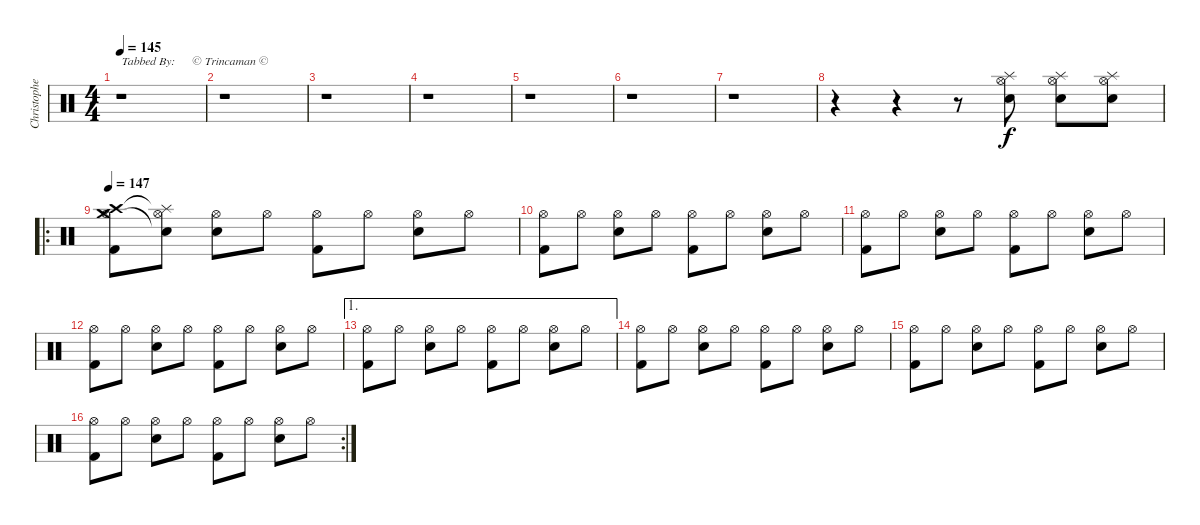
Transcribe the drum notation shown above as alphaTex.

\track ("Christopher Schneider  (Drums)" "Christophe") {instrument percussion}
\staff {score}
\articulation defaults
\ts (4 4)
\tempo 145
\clef neutral
\ks c
r.1{txt "Tabbed By:      © Trincaman ©" dy f} |
r.1 |
r.1 |
r.1 |
r.1 |
r.1 |
r.1 |
r.4 r.4 r.8 ("Hi-Hat (open)" "Splash (hit)" "Electric Snare (hit)").8 ("Hi-Hat (open)" "Splash (hit)" "Electric Snare (hit)").8 ("Hi-Hat (open)" "Splash (hit)" "Electric Snare (hit)").8 |
\ro
\tempo 147
("Crash high (hit)" "Hi-Hat (open)" "Crash medium (hit)" "Kick (hit) 2").8 ("Splash (hit)"{t} "Hi-Hat (open)" "Snare (hit)"{t}).8 ("Hi-Hat (open)" "Electric Snare (hit)").8 "Hi-Hat (open)".8 ("Hi-Hat (open)" "Kick (hit) 2").8 "Hi-Hat (open)".8 ("Hi-Hat (open)" "Electric Snare (hit)").8 "Hi-Hat (open)".8 |
("Hi-Hat (open)" "Kick (hit) 2").8 "Hi-Hat (open)".8 ("Hi-Hat (open)" "Electric Snare (hit)").8 "Hi-Hat (open)".8 ("Hi-Hat (open)" "Kick (hit) 2").8 "Hi-Hat (open)".8 ("Hi-Hat (open)" "Electric Snare (hit)").8 "Hi-Hat (open)".8 |
("Hi-Hat (open)" "Kick (hit) 2").8 "Hi-Hat (open)".8 ("Hi-Hat (open)" "Electric Snare (hit)").8 "Hi-Hat (open)".8 ("Hi-Hat (open)" "Kick (hit) 2").8 "Hi-Hat (open)".8 ("Hi-Hat (open)" "Electric Snare (hit)").8 "Hi-Hat (open)".8 |
("Hi-Hat (open)" "Kick (hit) 2").8 "Hi-Hat (open)".8 ("Hi-Hat (open)" "Electric Snare (hit)").8 "Hi-Hat (open)".8 ("Hi-Hat (open)" "Kick (hit) 2").8 "Hi-Hat (open)".8 ("Hi-Hat (open)" "Electric Snare (hit)").8 "Hi-Hat (open)".8 |
\ae 1
("Hi-Hat (open)" "Kick (hit) 2").8 "Hi-Hat (open)".8 ("Hi-Hat (open)" "Electric Snare (hit)").8 "Hi-Hat (open)".8 ("Hi-Hat (open)" "Kick (hit) 2").8 "Hi-Hat (open)".8 ("Hi-Hat (open)" "Electric Snare (hit)").8 "Hi-Hat (open)".8 |
("Hi-Hat (open)" "Kick (hit) 2").8 "Hi-Hat (open)".8 ("Hi-Hat (open)" "Electric Snare (hit)").8 "Hi-Hat (open)".8 ("Hi-Hat (open)" "Kick (hit) 2").8 "Hi-Hat (open)".8 ("Hi-Hat (open)" "Electric Snare (hit)").8 "Hi-Hat (open)".8 |
("Hi-Hat (open)" "Kick (hit) 2").8 "Hi-Hat (open)".8 ("Hi-Hat (open)" "Electric Snare (hit)").8 "Hi-Hat (open)".8 ("Hi-Hat (open)" "Kick (hit) 2").8 "Hi-Hat (open)".8 ("Hi-Hat (open)" "Electric Snare (hit)").8 "Hi-Hat (open)".8 |
\rc 2
("Hi-Hat (open)" "Kick (hit) 2").8 "Hi-Hat (open)".8 ("Hi-Hat (open)" "Electric Snare (hit)").8 "Hi-Hat (open)".8 ("Hi-Hat (open)" "Kick (hit) 2").8 "Hi-Hat (open)".8 ("Hi-Hat (open)" "Electric Snare (hit)").8 "Hi-Hat (open)".8
